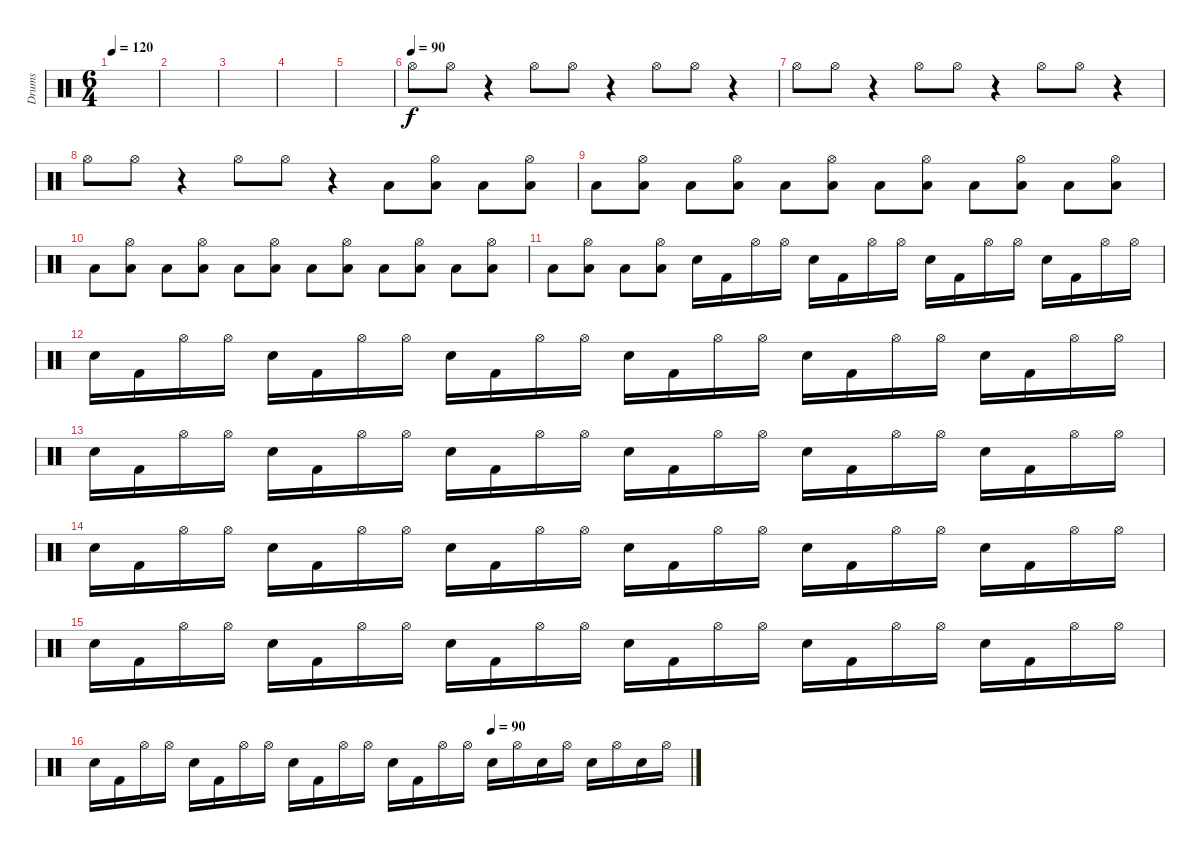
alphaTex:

\track ("Drums" "Drums") {instrument percussion}
\staff {score}
\articulation defaults
\ts (6 4)
\tempo 120
\tempo 80
\tempo 120
\clef neutral
\ks c
|
|
|
|
|
\tempo (90)
"Hi-Hat (open)".8 "Hi-Hat (open)".8 r.4 "Hi-Hat (open)".8 "Hi-Hat (open)".8 r.4 "Hi-Hat (open)".8 "Hi-Hat (open)".8 r.4 |
"Hi-Hat (open)".8 "Hi-Hat (open)".8 r.4 "Hi-Hat (open)".8 "Hi-Hat (open)".8 r.4 "Hi-Hat (open)".8 "Hi-Hat (open)".8 r.4 |
"Hi-Hat (open)".8 "Hi-Hat (open)".8 r.4 "Hi-Hat (open)".8 "Hi-Hat (open)".8 r.4 "Low Floor Tom (hit)".8 ("Low Floor Tom (hit)" "Hi-Hat (open)").8 "Low Floor Tom (hit)".8 ("Low Floor Tom (hit)" "Hi-Hat (open)").8 |
"Low Floor Tom (hit)".8 ("Low Floor Tom (hit)" "Hi-Hat (open)").8 "Low Floor Tom (hit)".8 ("Low Floor Tom (hit)" "Hi-Hat (open)").8 "Low Floor Tom (hit)".8 ("Low Floor Tom (hit)" "Hi-Hat (open)").8 "Low Floor Tom (hit)".8 ("Low Floor Tom (hit)" "Hi-Hat (open)").8 "Low Floor Tom (hit)".8 ("Low Floor Tom (hit)" "Hi-Hat (open)").8 "Low Floor Tom (hit)".8 ("Low Floor Tom (hit)" "Hi-Hat (open)").8 |
"Low Floor Tom (hit)".8 ("Low Floor Tom (hit)" "Hi-Hat (open)").8 "Low Floor Tom (hit)".8 ("Low Floor Tom (hit)" "Hi-Hat (open)").8 "Low Floor Tom (hit)".8 ("Low Floor Tom (hit)" "Hi-Hat (open)").8 "Low Floor Tom (hit)".8 ("Low Floor Tom (hit)" "Hi-Hat (open)").8 "Low Floor Tom (hit)".8 ("Low Floor Tom (hit)" "Hi-Hat (open)").8 "Low Floor Tom (hit)".8 ("Low Floor Tom (hit)" "Hi-Hat (open)").8 |
"Low Floor Tom (hit)".8 ("Low Floor Tom (hit)" "Hi-Hat (open)").8 "Low Floor Tom (hit)".8 ("Low Floor Tom (hit)" "Hi-Hat (open)").8 "Snare (hit) 2".16 "Kick (hit) 2".16 "Hi-Hat (open)".16 "Hi-Hat (open)".16 "Snare (hit) 2".16 "Kick (hit) 2".16 "Hi-Hat (open)".16 "Hi-Hat (open)".16 "Snare (hit) 2".16 "Kick (hit) 2".16 "Hi-Hat (open)".16 "Hi-Hat (open)".16 "Snare (hit) 2".16 "Kick (hit) 2".16 "Hi-Hat (open)".16 "Hi-Hat (open)".16 |
"Snare (hit) 2".16 "Kick (hit) 2".16 "Hi-Hat (open)".16 "Hi-Hat (open)".16 "Snare (hit) 2".16 "Kick (hit) 2".16 "Hi-Hat (open)".16 "Hi-Hat (open)".16 "Snare (hit) 2".16 "Kick (hit) 2".16 "Hi-Hat (open)".16 "Hi-Hat (open)".16 "Snare (hit) 2".16 "Kick (hit) 2".16 "Hi-Hat (open)".16 "Hi-Hat (open)".16 "Snare (hit) 2".16 "Kick (hit) 2".16 "Hi-Hat (open)".16 "Hi-Hat (open)".16 "Snare (hit) 2".16 "Kick (hit) 2".16 "Hi-Hat (open)".16 "Hi-Hat (open)".16 |
"Snare (hit) 2".16 "Kick (hit) 2".16 "Hi-Hat (open)".16 "Hi-Hat (open)".16 "Snare (hit) 2".16 "Kick (hit) 2".16 "Hi-Hat (open)".16 "Hi-Hat (open)".16 "Snare (hit) 2".16 "Kick (hit) 2".16 "Hi-Hat (open)".16 "Hi-Hat (open)".16 "Snare (hit) 2".16 "Kick (hit) 2".16 "Hi-Hat (open)".16 "Hi-Hat (open)".16 "Snare (hit) 2".16 "Kick (hit) 2".16 "Hi-Hat (open)".16 "Hi-Hat (open)".16 "Snare (hit) 2".16 "Kick (hit) 2".16 "Hi-Hat (open)".16 "Hi-Hat (open)".16 |
"Snare (hit) 2".16 "Kick (hit) 2".16 "Hi-Hat (open)".16 "Hi-Hat (open)".16 "Snare (hit) 2".16 "Kick (hit) 2".16 "Hi-Hat (open)".16 "Hi-Hat (open)".16 "Snare (hit) 2".16 "Kick (hit) 2".16 "Hi-Hat (open)".16 "Hi-Hat (open)".16 "Snare (hit) 2".16 "Kick (hit) 2".16 "Hi-Hat (open)".16 "Hi-Hat (open)".16 "Snare (hit) 2".16 "Kick (hit) 2".16 "Hi-Hat (open)".16 "Hi-Hat (open)".16 "Snare (hit) 2".16 "Kick (hit) 2".16 "Hi-Hat (open)".16 "Hi-Hat (open)".16 |
"Snare (hit) 2".16 "Kick (hit) 2".16 "Hi-Hat (open)".16 "Hi-Hat (open)".16 "Snare (hit) 2".16 "Kick (hit) 2".16 "Hi-Hat (open)".16 "Hi-Hat (open)".16 "Snare (hit) 2".16 "Kick (hit) 2".16 "Hi-Hat (open)".16 "Hi-Hat (open)".16 "Snare (hit) 2".16 "Kick (hit) 2".16 "Hi-Hat (open)".16 "Hi-Hat (open)".16 "Snare (hit) 2".16 "Kick (hit) 2".16 "Hi-Hat (open)".16 "Hi-Hat (open)".16 "Snare (hit) 2".16 "Kick (hit) 2".16 "Hi-Hat (open)".16 "Hi-Hat (open)".16 |
\tempo (90 0.6666666666666666)
"Snare (hit) 2".16 "Kick (hit) 2".16 "Hi-Hat (open)".16 "Hi-Hat (open)".16 "Snare (hit) 2".16 "Kick (hit) 2".16 "Hi-Hat (open)".16 "Hi-Hat (open)".16 "Snare (hit) 2".16 "Kick (hit) 2".16 "Hi-Hat (open)".16 "Hi-Hat (open)".16 "Snare (hit) 2".16 "Kick (hit) 2".16 "Hi-Hat (open)".16 "Hi-Hat (open)".16 "Snare (hit) 2".16 "Hi-Hat (open)".16 "Snare (hit) 2".16 "Hi-Hat (open)".16 "Snare (hit) 2".16 "Hi-Hat (open)".16 "Snare (hit) 2".16 "Hi-Hat (open)".16
